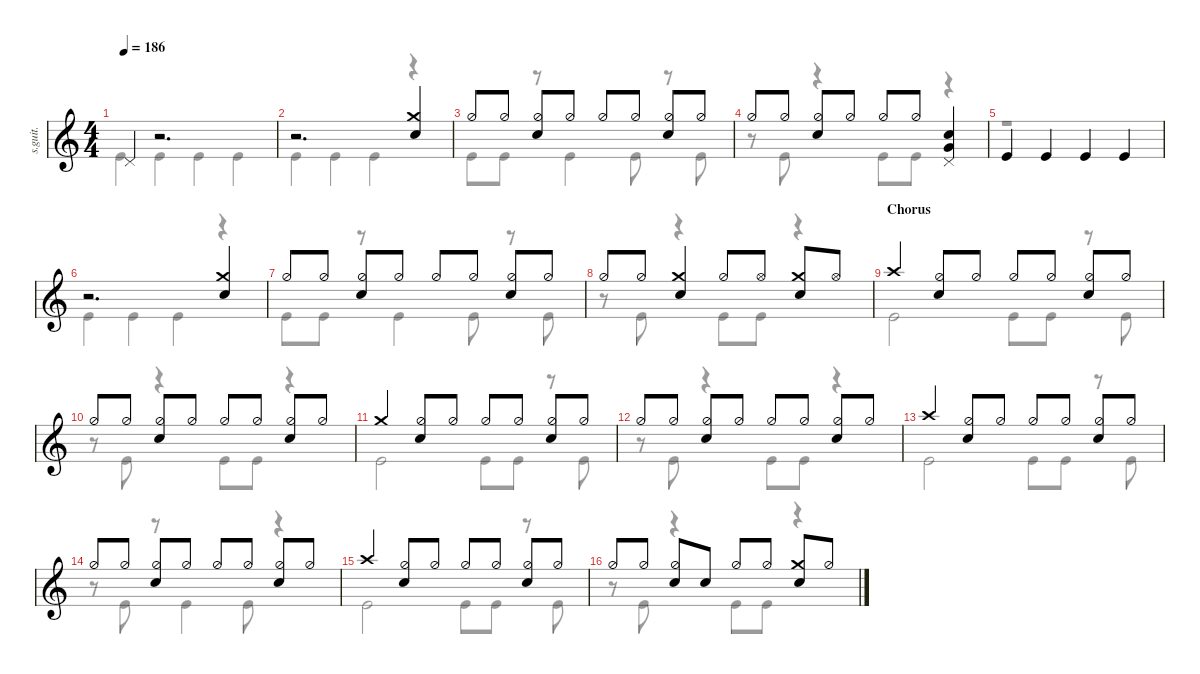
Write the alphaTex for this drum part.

\defaultSystemsLayout 4
\hideDynamics
\bracketExtendMode nobrackets
\track ("Tre Cool" "s.guit.") {instrument percussion}
\staff {score}
\articulation defaults
\voice
\ts (4 4)
\tempo 186
\clef g2
\ks c "Pedal Hi-Hat (hit)".4{dy f}
r.2{d} |
r.2{d} ("Snare (hit) 2" "Crash medium (hit)").4 |
"Hi-Hat (half)".8 "Hi-Hat (half)".8 ("Hi-Hat (half)" "Snare (hit) 2").8 "Hi-Hat (half)".8 "Hi-Hat (half)".8 "Hi-Hat (half)".8 ("Hi-Hat (half)" "Snare (hit) 2").8 "Hi-Hat (half)".8 |
"Hi-Hat (half)".8 "Hi-Hat (half)".8 ("Hi-Hat (half)" "Snare (hit) 2").8 "Hi-Hat (half)".8 "Hi-Hat (half)".8 "Hi-Hat (half)".8 ("Snare (hit) 2" "Very Low Tom (hit)" "Pedal Hi-Hat (hit)").4 |
"Kick (hit)".4 "Kick (hit)".4 "Kick (hit)".4 "Kick (hit)".4 |
r.2{d} ("Snare (hit) 2" "Crash medium (hit)").4 |
"Hi-Hat (half)".8 "Hi-Hat (half)".8 ("Hi-Hat (half)" "Snare (hit) 2").8 "Hi-Hat (half)".8 "Hi-Hat (half)".8 "Hi-Hat (half)".8 ("Hi-Hat (half)" "Snare (hit) 2").8 "Hi-Hat (half)".8 |
"Hi-Hat (half)".8 "Hi-Hat (half)".8 ("Snare (hit) 2" "Crash medium (hit)").4 "Hi-Hat (half)".8 "Hi-Hat (open)".8 ("Snare (hit) 2" "Crash medium (hit)").8 "Hi-Hat (open)".8 |
\section ("" "Chorus")
"Crash high (hit)".4 ("Hi-Hat (half)" "Snare (hit) 2").8 "Hi-Hat (half)".8 "Hi-Hat (half)".8 "Hi-Hat (half)".8 ("Hi-Hat (half)" "Snare (hit) 2").8 "Hi-Hat (half)".8 |
"Hi-Hat (half)".8 "Hi-Hat (half)".8 ("Hi-Hat (half)" "Snare (hit) 2").8 "Hi-Hat (half)".8 "Hi-Hat (half)".8 "Hi-Hat (half)".8 ("Hi-Hat (half)" "Snare (hit) 2").8 "Hi-Hat (half)".8 |
"Crash medium (hit)".4 ("Hi-Hat (half)" "Snare (hit) 2").8 "Hi-Hat (half)".8 "Hi-Hat (half)".8 "Hi-Hat (half)".8 ("Hi-Hat (half)" "Snare (hit) 2").8 "Hi-Hat (half)".8 |
"Hi-Hat (half)".8 "Hi-Hat (half)".8 ("Hi-Hat (half)" "Snare (hit) 2").8 "Hi-Hat (half)".8 "Hi-Hat (half)".8 "Hi-Hat (half)".8 ("Hi-Hat (half)" "Snare (hit) 2").8 "Hi-Hat (half)".8 |
"Crash high (hit)".4 ("Hi-Hat (half)" "Snare (hit) 2").8 "Hi-Hat (half)".8 "Hi-Hat (half)".8 "Hi-Hat (half)".8 ("Hi-Hat (half)" "Snare (hit) 2").8 "Hi-Hat (half)".8 |
"Hi-Hat (half)".8 "Hi-Hat (half)".8 ("Hi-Hat (half)" "Snare (hit) 2").8 "Hi-Hat (half)".8 "Hi-Hat (half)".8 "Hi-Hat (half)".8 ("Hi-Hat (half)" "Snare (hit) 2").8 "Hi-Hat (half)".8 |
"Crash high (hit)".4 ("Hi-Hat (half)" "Snare (hit) 2").8 "Hi-Hat (half)".8 "Hi-Hat (half)".8 "Hi-Hat (half)".8 ("Hi-Hat (half)" "Snare (hit) 2").8 "Hi-Hat (half)".8 |
"Hi-Hat (half)".8 "Hi-Hat (half)".8 ("Hi-Hat (half)" "Snare (hit) 2").8 "Snare (hit) 2".8 "Hi-Hat (half)".8 "Hi-Hat (half)".8 ("Crash medium (hit)" "Snare (hit) 2").8 "Hi-Hat (half)".8
\voice
\clef g2
\ottava regular
\simile none
\ks c "Kick (hit)".4{dy f} "Kick (hit)".4 "Kick (hit)".4 "Kick (hit)".4
|
"Kick (hit)".4 "Kick (hit)".4 "Kick (hit)".4 r.4 |
"Kick (hit)".8 "Kick (hit)".8 r.8 "Kick (hit)".4 "Kick (hit)".8 r.8 "Kick (hit)".8 |
r.8 "Kick (hit)".8 r.4 "Kick (hit)".8 "Kick (hit)".8 r.4 |
r.1 |
"Kick (hit)".4 "Kick (hit)".4 "Kick (hit)".4 r.4 |
"Kick (hit)".8 "Kick (hit)".8 r.8 "Kick (hit)".4 "Kick (hit)".8 r.8 "Kick (hit)".8 |
r.8 "Kick (hit)".8 r.4 "Kick (hit)".8 "Kick (hit)".8 r.4 |
"Kick (hit)".2 "Kick (hit)".8 "Kick (hit)".8 r.8 "Kick (hit)".8 |
r.8 "Kick (hit)".8 r.4 "Kick (hit)".8 "Kick (hit)".8 r.4 |
"Kick (hit)".2 "Kick (hit)".8 "Kick (hit)".8 r.8 "Kick (hit)".8 |
r.8 "Kick (hit)".8 r.4 "Kick (hit)".8 "Kick (hit)".8 r.4 |
"Kick (hit)".2 "Kick (hit)".8 "Kick (hit)".8 r.8 "Kick (hit)".8 |
r.8 "Kick (hit)".8 r.8 "Kick (hit)".4 "Kick (hit)".8 r.4 |
"Kick (hit)".2 "Kick (hit)".8 "Kick (hit)".8 r.8 "Kick (hit)".8 |
r.8 "Kick (hit)".8 r.4 "Kick (hit)".8 "Kick (hit)".8 r.4
